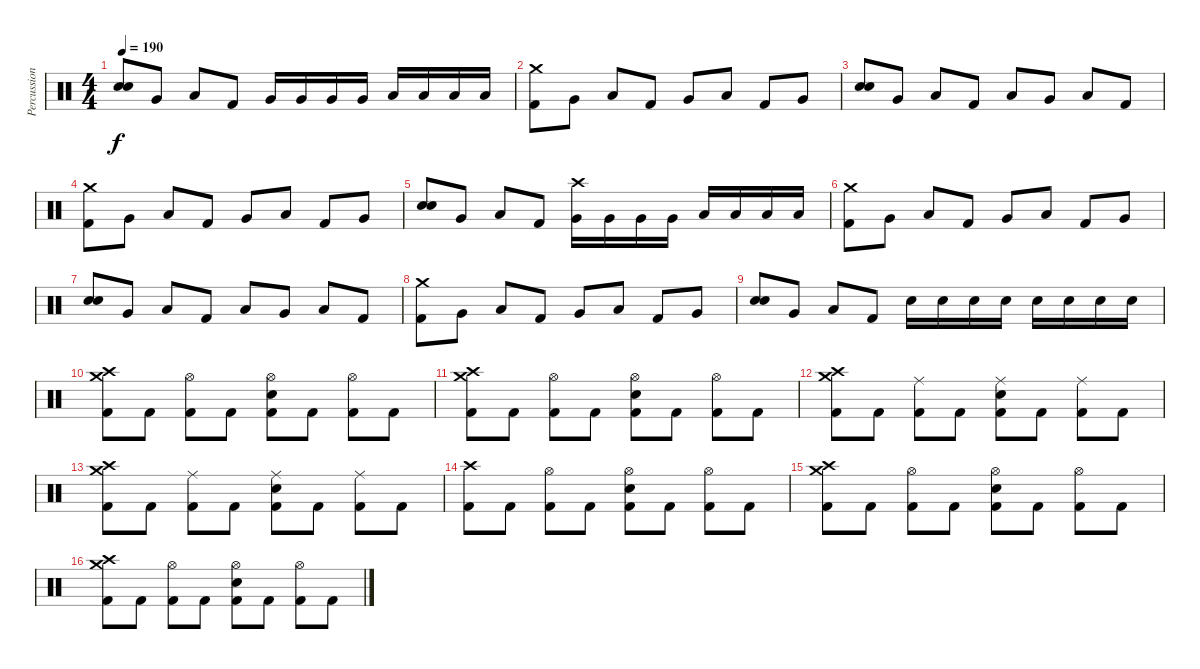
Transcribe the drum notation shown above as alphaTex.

\track ("Percussion" "Percussion") {instrument percussion}
\staff {score}
\articulation defaults
\ts (4 4)
\tempo 190
\clef neutral
\ks c
("Electric Snare (hit)" "Snare (hit) 2").8{dy f} "Very Low Tom (hit)".8 "Low Floor Tom (hit)".8 "Kick (hit) 2".8 "Very Low Tom (hit)".16 "Very Low Tom (hit)".16 "Very Low Tom (hit)".16 "Very Low Tom (hit)".16 "Low Floor Tom (hit)".16 "Low Floor Tom (hit)".16 "Low Floor Tom (hit)".16 "Low Floor Tom (hit)".16 |
("Crash medium (hit)" "Kick (hit) 2").8 "Very Low Tom (hit)".8 "Low Floor Tom (hit)".8 "Kick (hit) 2".8 "Very Low Tom (hit)".8 "Low Floor Tom (hit)".8 "Kick (hit) 2".8 "Very Low Tom (hit)".8 |
("Electric Snare (hit)" "Snare (hit) 2").8 "Very Low Tom (hit)".8 "Low Floor Tom (hit)".8 "Kick (hit) 2".8 "Low Floor Tom (hit)".8 "Very Low Tom (hit)".8 "Low Floor Tom (hit)".8 "Kick (hit) 2".8 |
("Crash medium (hit)" "Kick (hit) 2").8 "Very Low Tom (hit)".8 "Low Floor Tom (hit)".8 "Kick (hit) 2".8 "Very Low Tom (hit)".8 "Low Floor Tom (hit)".8 "Kick (hit) 2".8 "Very Low Tom (hit)".8 |
("Electric Snare (hit)" "Snare (hit) 2").8 "Very Low Tom (hit)".8 "Low Floor Tom (hit)".8 "Kick (hit) 2".8 ("Crash high (hit)" "Very Low Tom (hit)").16 "Very Low Tom (hit)".16 "Very Low Tom (hit)".16 "Very Low Tom (hit)".16 "Low Floor Tom (hit)".16 "Low Floor Tom (hit)".16 "Low Floor Tom (hit)".16 "Low Floor Tom (hit)".16 |
("Crash medium (hit)" "Kick (hit) 2").8 "Very Low Tom (hit)".8 "Low Floor Tom (hit)".8 "Kick (hit) 2".8 "Very Low Tom (hit)".8 "Low Floor Tom (hit)".8 "Kick (hit) 2".8 "Very Low Tom (hit)".8 |
("Electric Snare (hit)" "Snare (hit) 2").8 "Very Low Tom (hit)".8 "Low Floor Tom (hit)".8 "Kick (hit) 2".8 "Low Floor Tom (hit)".8 "Very Low Tom (hit)".8 "Low Floor Tom (hit)".8 "Kick (hit) 2".8 |
("Crash medium (hit)" "Kick (hit) 2").8 "Very Low Tom (hit)".8 "Low Floor Tom (hit)".8 "Kick (hit) 2".8 "Very Low Tom (hit)".8 "Low Floor Tom (hit)".8 "Kick (hit) 2".8 "Very Low Tom (hit)".8 |
("Electric Snare (hit)" "Snare (hit) 2").8 "Very Low Tom (hit)".8 "Low Floor Tom (hit)".8 "Kick (hit) 2".8 "Electric Snare (hit)".16 "Electric Snare (hit)".16 "Electric Snare (hit)".16 "Electric Snare (hit)".16 "Electric Snare (hit)".16 "Electric Snare (hit)".16 "Electric Snare (hit)".16 "Electric Snare (hit)".16 |
("Crash high (hit)" "Crash medium (hit)" "Kick (hit) 2").8 "Kick (hit) 2".8 ("Hi-Hat (open)" "Kick (hit) 2").8 "Kick (hit) 2".8 ("Hi-Hat (open)" "Electric Snare (hit)" "Kick (hit) 2").8 "Kick (hit) 2".8 ("Hi-Hat (open)" "Kick (hit) 2").8 "Kick (hit) 2".8 |
("Crash high (hit)" "Crash medium (hit)" "Kick (hit) 2").8 "Kick (hit) 2".8 ("Hi-Hat (open)" "Kick (hit) 2").8 "Kick (hit) 2".8 ("Hi-Hat (open)" "Electric Snare (hit)" "Kick (hit) 2").8 "Kick (hit) 2".8 ("Hi-Hat (open)" "Kick (hit) 2").8 "Kick (hit) 2".8 |
("Crash high (hit)" "Crash medium (hit)" "Kick (hit) 2").8 "Kick (hit) 2".8 ("Ride (middle)" "Kick (hit) 2").8 "Kick (hit) 2".8 ("Ride (middle)" "Electric Snare (hit)" "Kick (hit) 2").8 "Kick (hit) 2".8 ("Ride (middle)" "Kick (hit) 2").8 "Kick (hit) 2".8 |
("Crash high (hit)" "Crash medium (hit)" "Kick (hit) 2").8 "Kick (hit) 2".8 ("Ride (middle)" "Kick (hit) 2").8 "Kick (hit) 2".8 ("Ride (middle)" "Electric Snare (hit)" "Kick (hit) 2").8 "Kick (hit) 2".8 ("Ride (middle)" "Kick (hit) 2").8 "Kick (hit) 2".8 |
("Crash high (hit)" "Kick (hit) 2").8 "Kick (hit) 2".8 ("Hi-Hat (open)" "Kick (hit) 2").8 "Kick (hit) 2".8 ("Hi-Hat (open)" "Electric Snare (hit)" "Kick (hit) 2").8 "Kick (hit) 2".8 ("Hi-Hat (open)" "Kick (hit) 2").8 "Kick (hit) 2".8 |
("Crash high (hit)" "Crash medium (hit)" "Kick (hit) 2").8 "Kick (hit) 2".8 ("Hi-Hat (open)" "Kick (hit) 2").8 "Kick (hit) 2".8 ("Hi-Hat (open)" "Electric Snare (hit)" "Kick (hit) 2").8 "Kick (hit) 2".8 ("Hi-Hat (open)" "Kick (hit) 2").8 "Kick (hit) 2".8 |
("Crash high (hit)" "Crash medium (hit)" "Kick (hit) 2").8 "Kick (hit) 2".8 ("Hi-Hat (open)" "Kick (hit) 2").8 "Kick (hit) 2".8 ("Hi-Hat (open)" "Electric Snare (hit)" "Kick (hit) 2").8 "Kick (hit) 2".8 ("Hi-Hat (open)" "Kick (hit) 2").8 "Kick (hit) 2".8
